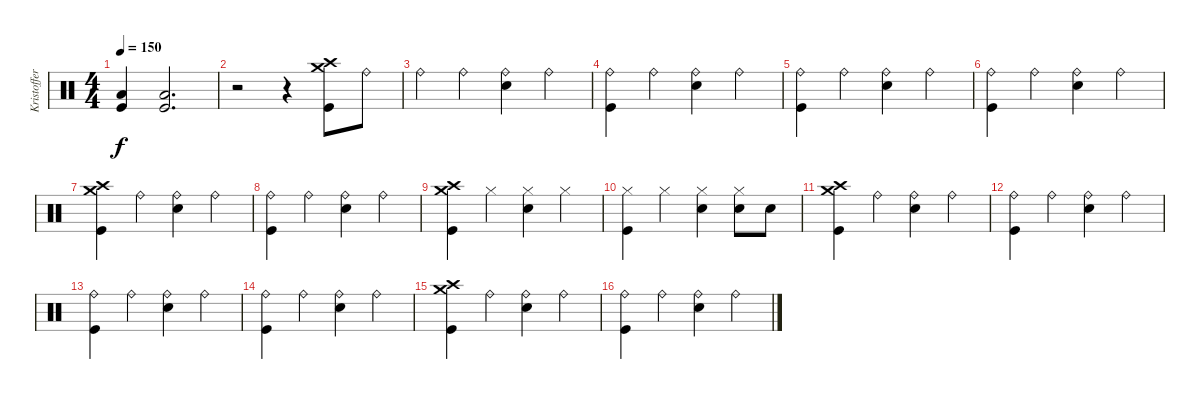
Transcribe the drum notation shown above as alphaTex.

\track ("Kristoffer Söderström - Drums" "Kristoffer") {instrument percussion}
\staff {score}
\articulation defaults
\ts (4 4)
\tempo 150
\clef neutral
\ks c
("Low Floor Tom (hit)" "Kick (hit)").4{dy f} ("Low Floor Tom (hit)" "Kick (hit)").2{d} |
r.2 r.4 ("Crash medium (hit)" "Crash high (hit)" "Kick (hit)").8 "Ride (bell)".8 |
"Ride (bell)".4 "Ride (bell)".4 ("Ride (bell)" "Snare (hit) 2").4 "Ride (bell)".4 |
("Ride (bell)" "Kick (hit)").4 "Ride (bell)".4 ("Ride (bell)" "Snare (hit) 2").4 "Ride (bell)".4 |
("Ride (bell)" "Kick (hit)").4 "Ride (bell)".4 ("Ride (bell)" "Snare (hit) 2").4 "Ride (bell)".4 |
("Ride (bell)" "Kick (hit)").4 "Ride (bell)".4 ("Ride (bell)" "Snare (hit) 2").4 "Ride (bell)".4 |
("Crash medium (hit)" "Crash high (hit)" "Kick (hit)").4 "Ride (bell)".4 ("Ride (bell)" "Snare (hit) 2").4 "Ride (bell)".4 |
("Ride (bell)" "Kick (hit)").4 "Ride (bell)".4 ("Ride (bell)" "Snare (hit) 2").4 "Ride (bell)".4 |
("Crash medium (hit)" "Crash high (hit)" "Kick (hit)").4 "Hi-Hat (closed)".4 ("Hi-Hat (closed)" "Snare (hit) 2").4 "Hi-Hat (closed)".4 |
("Hi-Hat (closed)" "Kick (hit)").4 "Hi-Hat (closed)".4 ("Hi-Hat (closed)" "Snare (hit) 2").4 ("Hi-Hat (closed)" "Snare (hit) 2").8 "Snare (hit) 2".8 |
("Crash medium (hit)" "Crash high (hit)" "Kick (hit)").4 "Ride (bell)".4 ("Ride (bell)" "Snare (hit) 2").4 "Ride (bell)".4 |
("Ride (bell)" "Kick (hit)").4 "Ride (bell)".4 ("Ride (bell)" "Snare (hit) 2").4 "Ride (bell)".4 |
("Ride (bell)" "Kick (hit)").4 "Ride (bell)".4 ("Ride (bell)" "Snare (hit) 2").4 "Ride (bell)".4 |
("Ride (bell)" "Kick (hit)").4 "Ride (bell)".4 ("Ride (bell)" "Snare (hit) 2").4 "Ride (bell)".4 |
("Crash medium (hit)" "Crash high (hit)" "Kick (hit)").4 "Ride (bell)".4 ("Ride (bell)" "Snare (hit) 2").4 "Ride (bell)".4 |
("Ride (bell)" "Kick (hit)").4 "Ride (bell)".4 ("Ride (bell)" "Snare (hit) 2").4 "Ride (bell)".4
